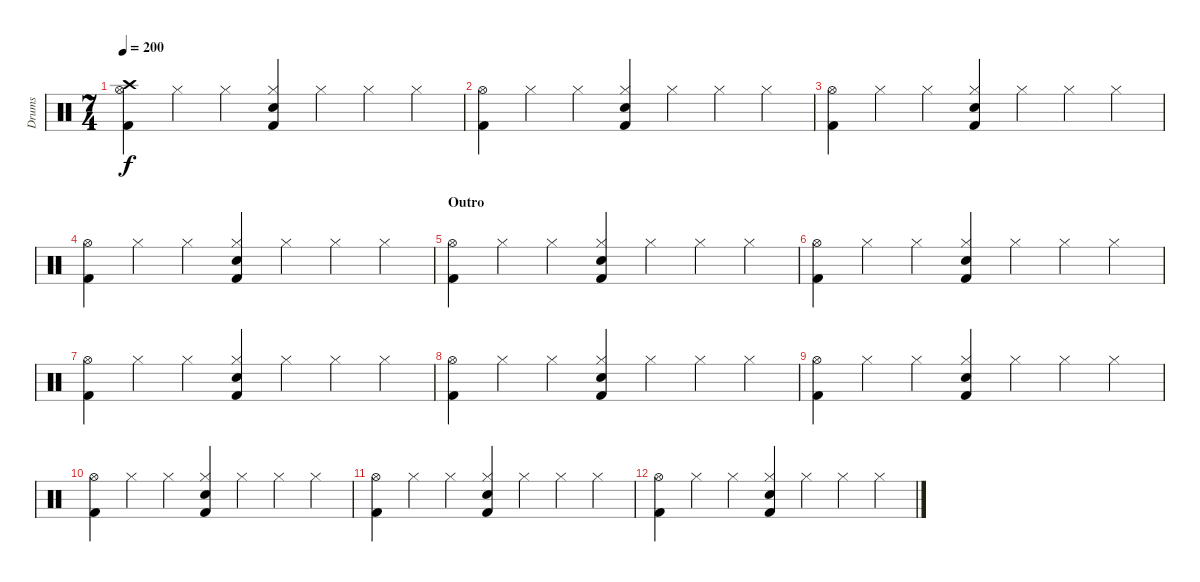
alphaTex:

\track ("Drums" "Drums") {instrument percussion}
\staff {score}
\articulation defaults
\ts (7 4)
\tempo 200
\clef neutral
\ks c
("Hi-Hat (open)" "Crash high (hit)" "Kick (hit) 2").4{dy f} "Hi-Hat (closed)".4 "Hi-Hat (closed)".4 ("Hi-Hat (closed)" "Snare (hit) 2" "Kick (hit) 2").4 "Hi-Hat (closed)".4 "Hi-Hat (closed)".4 "Hi-Hat (closed)".4 |
("Hi-Hat (open)" "Kick (hit) 2").4 "Hi-Hat (closed)".4 "Hi-Hat (closed)".4 ("Hi-Hat (closed)" "Snare (hit) 2" "Kick (hit) 2").4 "Hi-Hat (closed)".4 "Hi-Hat (closed)".4 "Hi-Hat (closed)".4 |
("Hi-Hat (open)" "Kick (hit) 2").4 "Hi-Hat (closed)".4 "Hi-Hat (closed)".4 ("Hi-Hat (closed)" "Snare (hit) 2" "Kick (hit) 2").4 "Hi-Hat (closed)".4 "Hi-Hat (closed)".4 "Hi-Hat (closed)".4 |
("Hi-Hat (open)" "Kick (hit) 2").4 "Hi-Hat (closed)".4 "Hi-Hat (closed)".4 ("Hi-Hat (closed)" "Snare (hit) 2" "Kick (hit) 2").4 "Hi-Hat (closed)".4 "Hi-Hat (closed)".4 "Hi-Hat (closed)".4 |
\section ("" "Outro")
("Hi-Hat (open)" "Kick (hit) 2").4 "Hi-Hat (closed)".4 "Hi-Hat (closed)".4 ("Hi-Hat (closed)" "Snare (hit) 2" "Kick (hit) 2").4 "Hi-Hat (closed)".4 "Hi-Hat (closed)".4 "Hi-Hat (closed)".4 |
("Hi-Hat (open)" "Kick (hit) 2").4 "Hi-Hat (closed)".4 "Hi-Hat (closed)".4 ("Hi-Hat (closed)" "Snare (hit) 2" "Kick (hit) 2").4 "Hi-Hat (closed)".4 "Hi-Hat (closed)".4 "Hi-Hat (closed)".4 |
("Hi-Hat (open)" "Kick (hit) 2").4 "Hi-Hat (closed)".4 "Hi-Hat (closed)".4 ("Hi-Hat (closed)" "Snare (hit) 2" "Kick (hit) 2").4 "Hi-Hat (closed)".4 "Hi-Hat (closed)".4 "Hi-Hat (closed)".4 |
("Hi-Hat (open)" "Kick (hit) 2").4 "Hi-Hat (closed)".4 "Hi-Hat (closed)".4 ("Hi-Hat (closed)" "Snare (hit) 2" "Kick (hit) 2").4 "Hi-Hat (closed)".4 "Hi-Hat (closed)".4 "Hi-Hat (closed)".4 |
("Hi-Hat (open)" "Kick (hit) 2").4 "Hi-Hat (closed)".4 "Hi-Hat (closed)".4 ("Hi-Hat (closed)" "Snare (hit) 2" "Kick (hit) 2").4 "Hi-Hat (closed)".4 "Hi-Hat (closed)".4 "Hi-Hat (closed)".4 |
("Hi-Hat (open)" "Kick (hit) 2").4 "Hi-Hat (closed)".4 "Hi-Hat (closed)".4 ("Hi-Hat (closed)" "Snare (hit) 2" "Kick (hit) 2").4 "Hi-Hat (closed)".4 "Hi-Hat (closed)".4 "Hi-Hat (closed)".4 |
("Hi-Hat (open)" "Kick (hit) 2").4 "Hi-Hat (closed)".4 "Hi-Hat (closed)".4 ("Hi-Hat (closed)" "Snare (hit) 2" "Kick (hit) 2").4 "Hi-Hat (closed)".4 "Hi-Hat (closed)".4 "Hi-Hat (closed)".4 |
("Hi-Hat (open)" "Kick (hit) 2").4 "Hi-Hat (closed)".4 "Hi-Hat (closed)".4 ("Hi-Hat (closed)" "Snare (hit) 2" "Kick (hit) 2").4 "Hi-Hat (closed)".4 "Hi-Hat (closed)".4 "Hi-Hat (closed)".4
